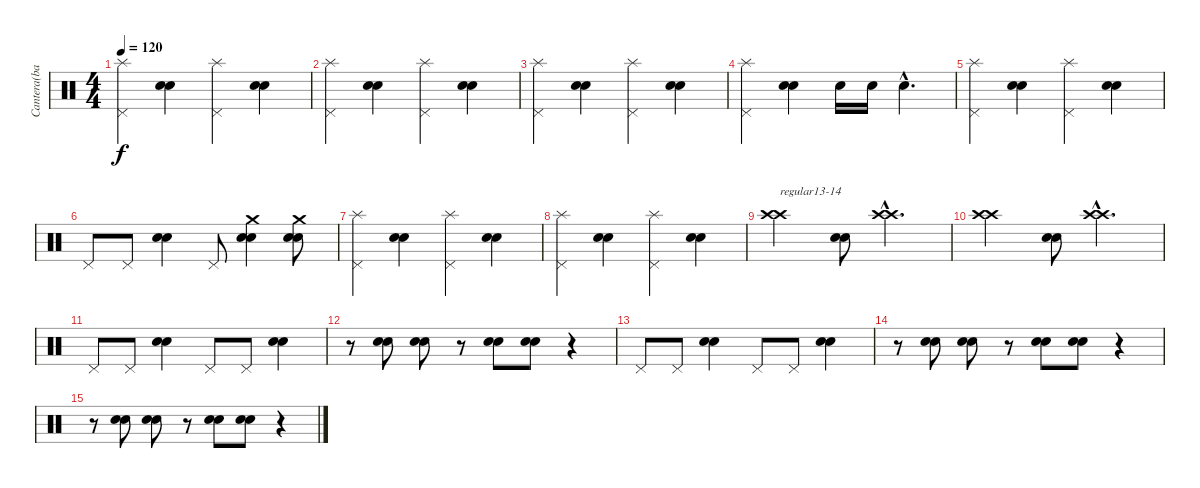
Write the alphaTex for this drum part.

\track ("Cantera(bateria)" "Cantera(ba") {instrument percussion}
\staff {score}
\articulation defaults
\ts (4 4)
\tempo 120
\clef neutral
\ks c
("Pedal Hi-Hat (hit)" "Splash (hit)").4{dy f} ("Electric Snare (hit)" "Electric Snare (hit)").4 ("Pedal Hi-Hat (hit)" "Splash (hit)").4 ("Electric Snare (hit)" "Electric Snare (hit)").4 |
("Pedal Hi-Hat (hit)" "Splash (hit)").4 ("Electric Snare (hit)" "Electric Snare (hit)").4 ("Pedal Hi-Hat (hit)" "Splash (hit)").4 ("Electric Snare (hit)" "Electric Snare (hit)").4 |
("Pedal Hi-Hat (hit)" "Splash (hit)").4 ("Electric Snare (hit)" "Electric Snare (hit)").4 ("Pedal Hi-Hat (hit)" "Splash (hit)").4 ("Electric Snare (hit)" "Electric Snare (hit)").4 |
("Pedal Hi-Hat (hit)" "Splash (hit)").4 ("Electric Snare (hit)" "Electric Snare (hit)").4 "Electric Snare (hit)".16 "Electric Snare (hit)".16 "Electric Snare (hit)"{hac}.4{d} |
("Pedal Hi-Hat (hit)" "Splash (hit)").4 ("Electric Snare (hit)" "Electric Snare (hit)").4 ("Pedal Hi-Hat (hit)" "Splash (hit)").4 ("Electric Snare (hit)" "Electric Snare (hit)").4 |
"Pedal Hi-Hat (hit)".8 "Pedal Hi-Hat (hit)".8 ("Electric Snare (hit)" "Electric Snare (hit)").4 "Pedal Hi-Hat (hit)".8 ("Electric Snare (hit)" "Electric Snare (hit)" "Crash medium (hit)").4 ("Electric Snare (hit)" "Electric Snare (hit)" "Crash medium (hit)").8 |
("Pedal Hi-Hat (hit)" "Splash (hit)").4 ("Electric Snare (hit)" "Electric Snare (hit)").4 ("Pedal Hi-Hat (hit)" "Splash (hit)").4 ("Electric Snare (hit)" "Electric Snare (hit)").4 |
("Pedal Hi-Hat (hit)" "Splash (hit)").4 ("Electric Snare (hit)" "Electric Snare (hit)").4 ("Pedal Hi-Hat (hit)" "Splash (hit)").4 ("Electric Snare (hit)" "Electric Snare (hit)").4 |
("Crash high (hit)" "Crash high (hit)").2{txt "regular13-14"} ("Electric Snare (hit)" "Electric Snare (hit)").8 ("Crash high (hit)"{hac} "Crash high (hit)"{hac}).4{d} |
("Crash high (hit)" "Crash high (hit)").2 ("Electric Snare (hit)" "Electric Snare (hit)").8 ("Crash high (hit)"{hac} "Crash high (hit)"{hac}).4{d} |
"Pedal Hi-Hat (hit)".8 "Pedal Hi-Hat (hit)".8 ("Electric Snare (hit)" "Electric Snare (hit)").4 "Pedal Hi-Hat (hit)".8 "Pedal Hi-Hat (hit)".8 ("Electric Snare (hit)" "Electric Snare (hit)").4 |
r.8 ("Electric Snare (hit)" "Electric Snare (hit)").8 ("Electric Snare (hit)" "Electric Snare (hit)").8 r.8 ("Electric Snare (hit)" "Electric Snare (hit)").8 ("Electric Snare (hit)" "Electric Snare (hit)").8 r.4 |
"Pedal Hi-Hat (hit)".8 "Pedal Hi-Hat (hit)".8 ("Electric Snare (hit)" "Electric Snare (hit)").4 "Pedal Hi-Hat (hit)".8 "Pedal Hi-Hat (hit)".8 ("Electric Snare (hit)" "Electric Snare (hit)").4 |
r.8 ("Electric Snare (hit)" "Electric Snare (hit)").8 ("Electric Snare (hit)" "Electric Snare (hit)").8 r.8 ("Electric Snare (hit)" "Electric Snare (hit)").8 ("Electric Snare (hit)" "Electric Snare (hit)").8 r.4 |
r.8 ("Electric Snare (hit)" "Electric Snare (hit)").8 ("Electric Snare (hit)" "Electric Snare (hit)").8 r.8 ("Electric Snare (hit)" "Electric Snare (hit)").8 ("Electric Snare (hit)" "Electric Snare (hit)").8 r.4
